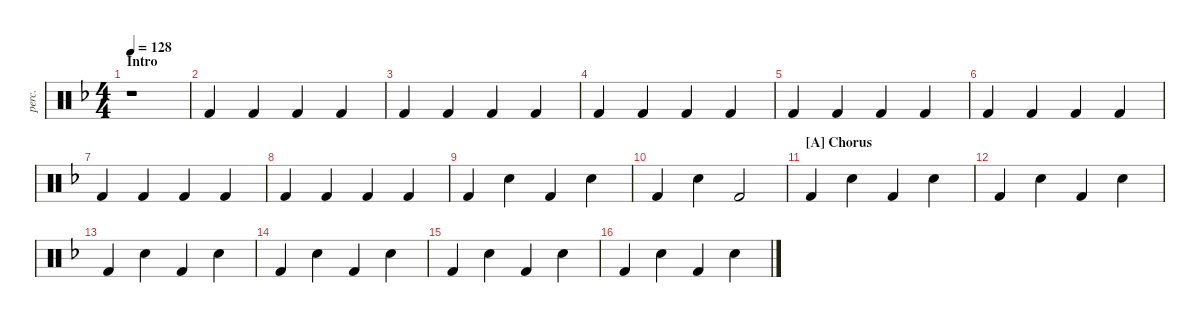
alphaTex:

\defaultSystemsLayout 2
\hideDynamics
\bracketExtendMode groupsimilarinstruments
\otherSystemsTrackNameOrientation horizontal
\track ("Guitar Percussion" "perc.") {instrument percussion}
\staff {score}
\articulation defaults
\ts (4 4)
\section ("" "Intro")
\scale
1.0647
\tempo 128
\accidentals auto
\clef neutral
\ottava regular
\simile none
\ks dminor
r.1{dy mf} |
\scale
0.935299 "Kick (hit) 2"{acc forcenatural}.4 "Kick (hit) 2"{acc forcenatural}.4 "Kick (hit) 2"{acc forcenatural}.4 "Kick (hit) 2"{acc forcenatural}.4 |
\scale
1.04549 "Kick (hit) 2"{acc forcenatural}.4 "Kick (hit) 2"{acc forcenatural}.4 "Kick (hit) 2"{acc forcenatural}.4 "Kick (hit) 2"{acc forcenatural}.4 |
\scale
0.954505 "Kick (hit) 2"{acc forcenatural}.4 "Kick (hit) 2"{acc forcenatural}.4 "Kick (hit) 2"{acc forcenatural}.4 "Kick (hit) 2"{acc forcenatural}.4 |
\scale
1.04549 "Kick (hit) 2"{acc forcenatural}.4 "Kick (hit) 2"{acc forcenatural}.4 "Kick (hit) 2"{acc forcenatural}.4 "Kick (hit) 2"{acc forcenatural}.4 |
\scale
0.954505 "Kick (hit) 2"{acc forcenatural}.4 "Kick (hit) 2"{acc forcenatural}.4 "Kick (hit) 2"{acc forcenatural}.4 "Kick (hit) 2"{acc forcenatural}.4 |
\scale
1.04549 "Kick (hit) 2"{acc forcenatural}.4 "Kick (hit) 2"{acc forcenatural}.4 "Kick (hit) 2"{acc forcenatural}.4 "Kick (hit) 2"{acc forcenatural}.4 |
\scale
0.954505 "Kick (hit) 2"{acc forcenatural}.4 "Kick (hit) 2"{acc forcenatural}.4 "Kick (hit) 2"{acc forcenatural}.4 "Kick (hit) 2"{acc forcenatural}.4 |
\scale
1.04107 "Kick (hit) 2"{acc forcenatural}.4 "Snare (hit) 2"{acc forcenatural}.4 "Kick (hit) 2"{acc forcenatural}.4 "Snare (hit) 2"{acc forcenatural}.4 |
\scale
0.958926 "Kick (hit) 2"{acc forcenatural}.4 "Snare (hit) 2"{acc forcenatural}.4 "Kick (hit) 2"{acc forcenatural}.2 |
\section ("A" "Chorus")
\scale
1.04549 "Kick (hit) 2"{acc forcenatural}.4 "Snare (hit) 2"{acc forcenatural}.4 "Kick (hit) 2"{acc forcenatural}.4 "Snare (hit) 2"{acc forcenatural}.4 |
\scale
0.954505 "Kick (hit) 2"{acc forcenatural}.4 "Snare (hit) 2"{acc forcenatural}.4 "Kick (hit) 2"{acc forcenatural}.4 "Snare (hit) 2"{acc forcenatural}.4 |
\scale
1.04549 "Kick (hit) 2"{acc forcenatural}.4 "Snare (hit) 2"{acc forcenatural}.4 "Kick (hit) 2"{acc forcenatural}.4 "Snare (hit) 2"{acc forcenatural}.4 |
\scale
0.954505 "Kick (hit) 2"{acc forcenatural}.4 "Snare (hit) 2"{acc forcenatural}.4 "Kick (hit) 2"{acc forcenatural}.4 "Snare (hit) 2"{acc forcenatural}.4 |
\scale
1.04549 "Kick (hit) 2"{acc forcenatural}.4 "Snare (hit) 2"{acc forcenatural}.4 "Kick (hit) 2"{acc forcenatural}.4 "Snare (hit) 2"{acc forcenatural}.4 |
\scale
0.954505 "Kick (hit) 2"{acc forcenatural}.4 "Snare (hit) 2"{acc forcenatural}.4 "Kick (hit) 2"{acc forcenatural}.4 "Snare (hit) 2"{acc forcenatural}.4
